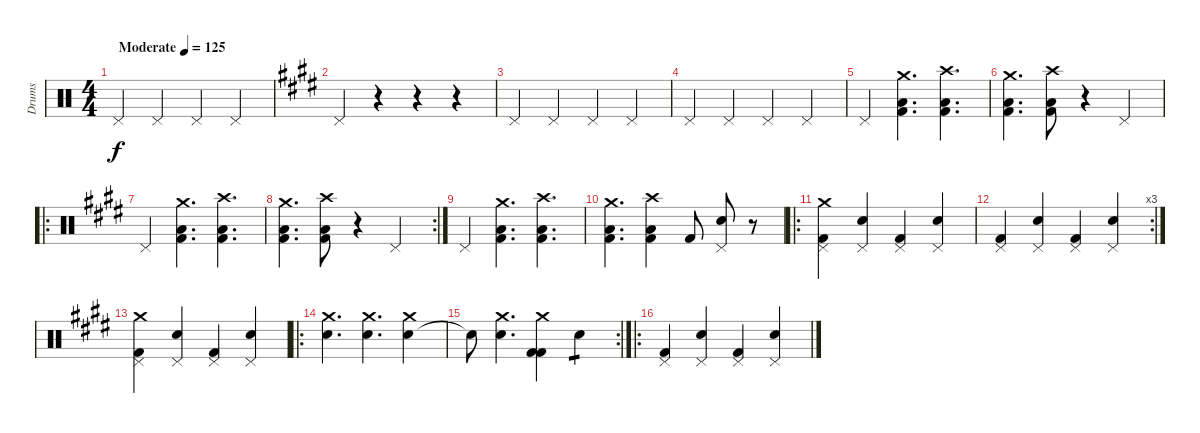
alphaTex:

\track ("Drums" "Drums") {instrument percussion}
\staff {score}
\articulation defaults
\ts (4 4)
\tempo (125 "Moderate")
\clef neutral
\ks c "Pedal Hi-Hat (hit)".4{dy f} "Pedal Hi-Hat (hit)".4 "Pedal Hi-Hat (hit)".4 "Pedal Hi-Hat (hit)".4
|
\ks e "Pedal Hi-Hat (hit)".4
r.4 r.4 r.4 |
"Pedal Hi-Hat (hit)".4 "Pedal Hi-Hat (hit)".4 "Pedal Hi-Hat (hit)".4 "Pedal Hi-Hat (hit)".4 |
"Pedal Hi-Hat (hit)".4 "Pedal Hi-Hat (hit)".4 "Pedal Hi-Hat (hit)".4 "Pedal Hi-Hat (hit)".4 |
"Pedal Hi-Hat (hit)".4{volume 11} ("Kick (hit) 2" "Low Floor Tom (hit)" "Crash medium (hit)").4{d} ("Kick (hit) 2" "Low Floor Tom (hit)" "Crash high (hit)").4{d} |
("Kick (hit) 2" "Low Floor Tom (hit)" "Crash medium (hit)").4{d} ("Kick (hit) 2" "Low Floor Tom (hit)" "Crash high (hit)").8 r.4 "Pedal Hi-Hat (hit)".4 |
\ro "Pedal Hi-Hat (hit)".4
("Kick (hit) 2" "Low Floor Tom (hit)" "Crash medium (hit)").4{d} ("Kick (hit) 2" "Low Floor Tom (hit)" "Crash high (hit)").4{d} |
\rc 2
("Kick (hit) 2" "Low Floor Tom (hit)" "Crash medium (hit)").4{d} ("Kick (hit) 2" "Low Floor Tom (hit)" "Crash high (hit)").8 r.4 "Pedal Hi-Hat (hit)".4 |
"Pedal Hi-Hat (hit)".4 ("Kick (hit) 2" "Low Floor Tom (hit)" "Crash medium (hit)").4{d} ("Kick (hit) 2" "Low Floor Tom (hit)" "Crash high (hit)").4{d} |
("Kick (hit) 2" "Low Floor Tom (hit)" "Crash medium (hit)").4{d} ("Kick (hit) 2" "Low Floor Tom (hit)" "Crash high (hit)").4 "Kick (hit) 2".8 ("Snare (hit) 2" "Pedal Hi-Hat (hit)").8 r.8 |
\ro
("Kick (hit) 2" "Pedal Hi-Hat (hit)" "Crash medium (hit)").4 ("Snare (hit) 2" "Pedal Hi-Hat (hit)").4 ("Kick (hit) 2" "Pedal Hi-Hat (hit)").4 ("Snare (hit) 2" "Pedal Hi-Hat (hit)").4 |
\rc 3
("Kick (hit) 2" "Pedal Hi-Hat (hit)").4 ("Snare (hit) 2" "Pedal Hi-Hat (hit)").4 ("Kick (hit) 2" "Pedal Hi-Hat (hit)").4 ("Snare (hit) 2" "Pedal Hi-Hat (hit)").4 |
("Kick (hit) 2" "Pedal Hi-Hat (hit)" "Crash medium (hit)").4 ("Snare (hit) 2" "Pedal Hi-Hat (hit)").4 ("Kick (hit) 2" "Pedal Hi-Hat (hit)").4 ("Snare (hit) 2" "Pedal Hi-Hat (hit)").4 |
\ro
("Snare (hit) 2" "Crash medium (hit)").4{d} ("Snare (hit) 2" "Crash medium (hit)").4{d} ("Snare (hit) 2" "Crash medium (hit)").4 |
\rc 2 "Snare (hit)"{t}.8
("Snare (hit) 2" "Crash medium (hit)").4{d} ("Kick (hit) 2" "Kick (hit) 2" "Crash medium (hit)").4 "Snare (hit) 2".4{tp 1} |
\ro
("Kick (hit) 2" "Pedal Hi-Hat (hit)").4 ("Snare (hit) 2" "Pedal Hi-Hat (hit)").4 ("Kick (hit) 2" "Pedal Hi-Hat (hit)").4 ("Snare (hit) 2" "Pedal Hi-Hat (hit)").4
